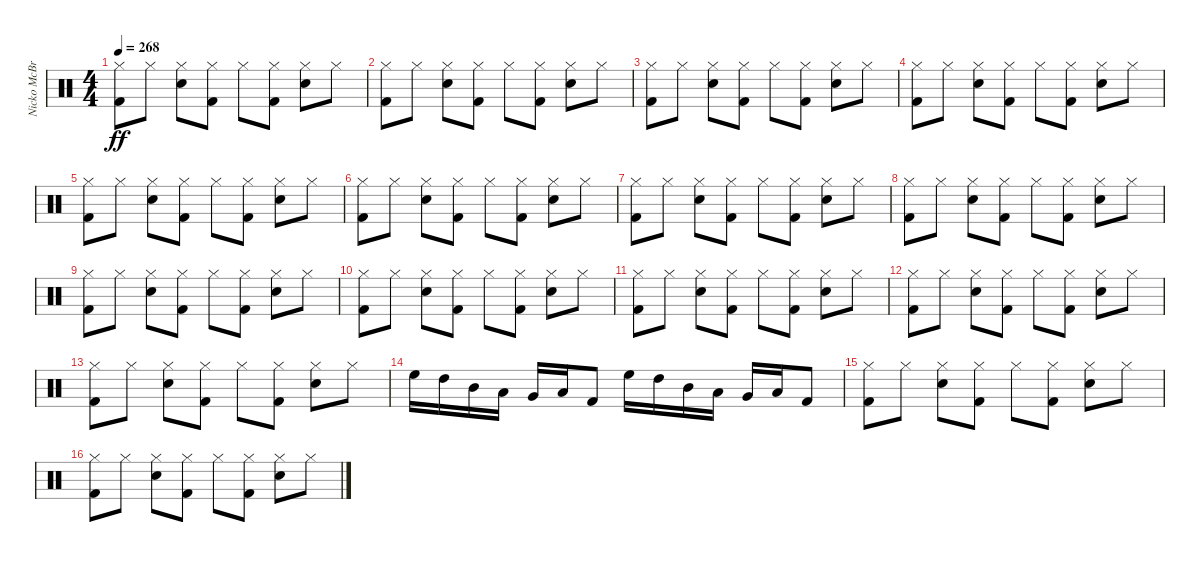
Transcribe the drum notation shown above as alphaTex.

\track ("Nicko McBrain" "Nicko McBr") {instrument percussion}
\staff {score}
\articulation defaults
\ts (4 4)
\tempo 268
\clef neutral
\ks c
("Kick (hit) 2" "Hi-Hat (closed)").8{dy ff} "Hi-Hat (closed)".8 ("Snare (hit) 2" "Hi-Hat (closed)").8 ("Kick (hit) 2" "Hi-Hat (closed)").8 "Hi-Hat (closed)".8 ("Kick (hit) 2" "Hi-Hat (closed)").8 ("Snare (hit) 2" "Hi-Hat (closed)").8 "Hi-Hat (closed)".8 |
("Kick (hit) 2" "Hi-Hat (closed)").8 "Hi-Hat (closed)".8 ("Snare (hit) 2" "Hi-Hat (closed)").8 ("Kick (hit) 2" "Hi-Hat (closed)").8 "Hi-Hat (closed)".8 ("Kick (hit) 2" "Hi-Hat (closed)").8 ("Snare (hit) 2" "Hi-Hat (closed)").8 "Hi-Hat (closed)".8 |
("Kick (hit) 2" "Hi-Hat (closed)").8 "Hi-Hat (closed)".8 ("Snare (hit) 2" "Hi-Hat (closed)").8 ("Kick (hit) 2" "Hi-Hat (closed)").8 "Hi-Hat (closed)".8 ("Kick (hit) 2" "Hi-Hat (closed)").8 ("Snare (hit) 2" "Hi-Hat (closed)").8 "Hi-Hat (closed)".8 |
("Kick (hit) 2" "Hi-Hat (closed)").8 "Hi-Hat (closed)".8 ("Snare (hit) 2" "Hi-Hat (closed)").8 ("Kick (hit) 2" "Hi-Hat (closed)").8 "Hi-Hat (closed)".8 ("Kick (hit) 2" "Hi-Hat (closed)").8 ("Snare (hit) 2" "Hi-Hat (closed)").8 "Hi-Hat (closed)".8 |
("Kick (hit) 2" "Hi-Hat (closed)").8 "Hi-Hat (closed)".8 ("Snare (hit) 2" "Hi-Hat (closed)").8 ("Kick (hit) 2" "Hi-Hat (closed)").8 "Hi-Hat (closed)".8 ("Kick (hit) 2" "Hi-Hat (closed)").8 ("Snare (hit) 2" "Hi-Hat (closed)").8 "Hi-Hat (closed)".8 |
("Kick (hit) 2" "Hi-Hat (closed)").8 "Hi-Hat (closed)".8 ("Snare (hit) 2" "Hi-Hat (closed)").8 ("Kick (hit) 2" "Hi-Hat (closed)").8 "Hi-Hat (closed)".8 ("Kick (hit) 2" "Hi-Hat (closed)").8 ("Snare (hit) 2" "Hi-Hat (closed)").8 "Hi-Hat (closed)".8 |
("Kick (hit) 2" "Hi-Hat (closed)").8 "Hi-Hat (closed)".8 ("Snare (hit) 2" "Hi-Hat (closed)").8 ("Kick (hit) 2" "Hi-Hat (closed)").8 "Hi-Hat (closed)".8 ("Kick (hit) 2" "Hi-Hat (closed)").8 ("Snare (hit) 2" "Hi-Hat (closed)").8 "Hi-Hat (closed)".8 |
("Kick (hit) 2" "Hi-Hat (closed)").8 "Hi-Hat (closed)".8 ("Snare (hit) 2" "Hi-Hat (closed)").8 ("Kick (hit) 2" "Hi-Hat (closed)").8 "Hi-Hat (closed)".8 ("Kick (hit) 2" "Hi-Hat (closed)").8 ("Snare (hit) 2" "Hi-Hat (closed)").8 "Hi-Hat (closed)".8 |
("Kick (hit) 2" "Hi-Hat (closed)").8 "Hi-Hat (closed)".8 ("Snare (hit) 2" "Hi-Hat (closed)").8 ("Kick (hit) 2" "Hi-Hat (closed)").8 "Hi-Hat (closed)".8 ("Kick (hit) 2" "Hi-Hat (closed)").8 ("Snare (hit) 2" "Hi-Hat (closed)").8 "Hi-Hat (closed)".8 |
("Kick (hit) 2" "Hi-Hat (closed)").8 "Hi-Hat (closed)".8 ("Snare (hit) 2" "Hi-Hat (closed)").8 ("Kick (hit) 2" "Hi-Hat (closed)").8 "Hi-Hat (closed)".8 ("Kick (hit) 2" "Hi-Hat (closed)").8 ("Snare (hit) 2" "Hi-Hat (closed)").8 "Hi-Hat (closed)".8 |
("Kick (hit) 2" "Hi-Hat (closed)").8 "Hi-Hat (closed)".8 ("Snare (hit) 2" "Hi-Hat (closed)").8 ("Kick (hit) 2" "Hi-Hat (closed)").8 "Hi-Hat (closed)".8 ("Kick (hit) 2" "Hi-Hat (closed)").8 ("Snare (hit) 2" "Hi-Hat (closed)").8 "Hi-Hat (closed)".8 |
("Kick (hit) 2" "Hi-Hat (closed)").8 "Hi-Hat (closed)".8 ("Snare (hit) 2" "Hi-Hat (closed)").8 ("Kick (hit) 2" "Hi-Hat (closed)").8 "Hi-Hat (closed)".8 ("Kick (hit) 2" "Hi-Hat (closed)").8 ("Snare (hit) 2" "Hi-Hat (closed)").8 "Hi-Hat (closed)".8 |
("Kick (hit) 2" "Hi-Hat (closed)").8 "Hi-Hat (closed)".8 ("Snare (hit) 2" "Hi-Hat (closed)").8 ("Kick (hit) 2" "Hi-Hat (closed)").8 "Hi-Hat (closed)".8 ("Kick (hit) 2" "Hi-Hat (closed)").8 ("Snare (hit) 2" "Hi-Hat (closed)").8 "Hi-Hat (closed)".8 |
"High Floor Tom (hit)".16 "High Tom (hit)".16 "Mid Tom (hit)".16 "Low Tom (hit)".16 "Very Low Tom (hit)".16 "Low Floor Tom (hit)".16 "Kick (hit) 2".8 "High Floor Tom (hit)".16 "High Tom (hit)".16 "Mid Tom (hit)".16 "Low Tom (hit)".16 "Very Low Tom (hit)".16 "Low Floor Tom (hit)".16 "Kick (hit) 2".8 |
("Kick (hit) 2" "Hi-Hat (closed)").8 "Hi-Hat (closed)".8 ("Snare (hit) 2" "Hi-Hat (closed)").8 ("Kick (hit) 2" "Hi-Hat (closed)").8 "Hi-Hat (closed)".8 ("Kick (hit) 2" "Hi-Hat (closed)").8 ("Snare (hit) 2" "Hi-Hat (closed)").8 "Hi-Hat (closed)".8 |
("Kick (hit) 2" "Hi-Hat (closed)").8 "Hi-Hat (closed)".8 ("Snare (hit) 2" "Hi-Hat (closed)").8 ("Kick (hit) 2" "Hi-Hat (closed)").8 "Hi-Hat (closed)".8 ("Kick (hit) 2" "Hi-Hat (closed)").8 ("Snare (hit) 2" "Hi-Hat (closed)").8 "Hi-Hat (closed)".8
